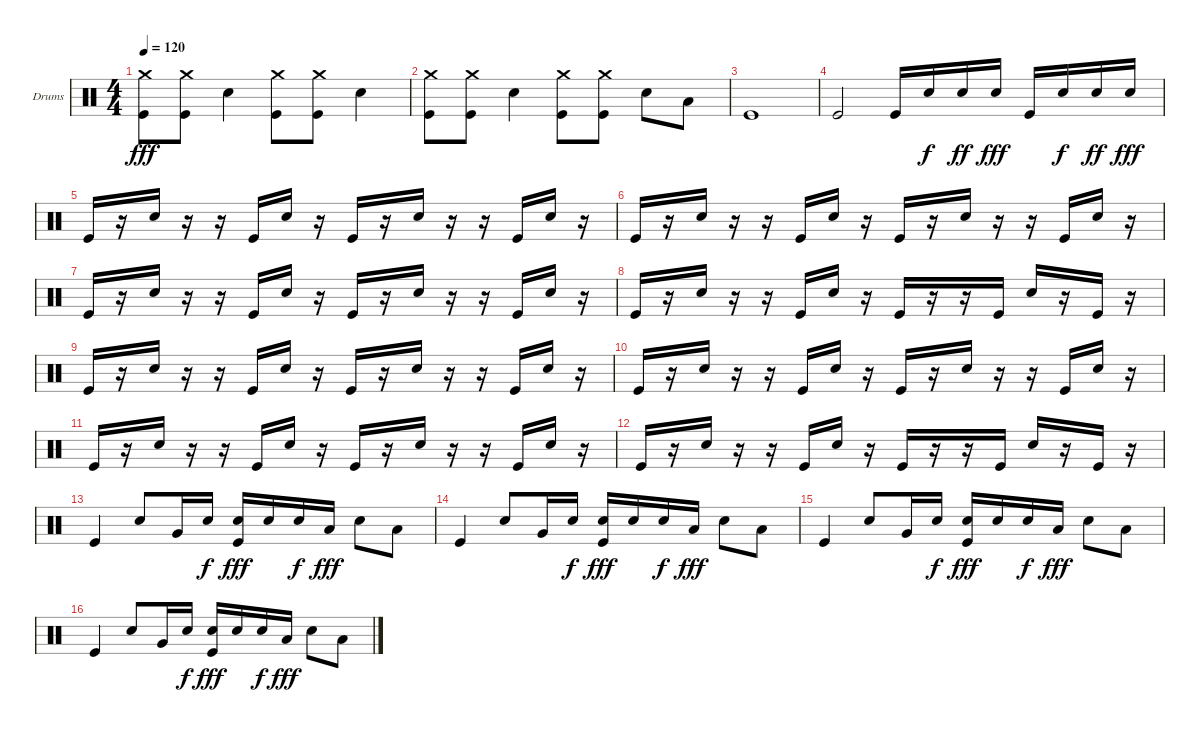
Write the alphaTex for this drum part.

\defaultSystemsLayout 4
\bracketExtendMode groupsimilarinstruments
\firstSystemTrackNameOrientation horizontal
\otherSystemsTrackNameOrientation horizontal
\track ("Пашок" "Drums") {instrument percussion}
\staff {score}
\articulation defaults
\ts (4 4)
\tempo 120
\clef neutral
\ks c
("Kick (hit)" "Crash medium (hit)").8{dy fff} ("Kick (hit)" "Crash medium (hit)").8 "Snare (hit) 2".4 ("Kick (hit)" "Crash medium (hit)").8 ("Kick (hit)" "Crash medium (hit)").8 "Snare (hit) 2".4 |
("Kick (hit)" "Crash medium (hit)").8 ("Kick (hit)" "Crash medium (hit)").8 "Snare (hit) 2".4 ("Kick (hit)" "Crash medium (hit)").8 ("Kick (hit)" "Crash medium (hit)").8 "Snare (hit) 2".8 "Low Tom (hit)".8 |
"Kick (hit)".1 |
"Kick (hit)".2 "Kick (hit)".16 "Snare (hit) 2".16{dy f} "Snare (hit) 2".16{dy ff} "Snare (hit) 2".16{dy fff} "Kick (hit)".16 "Snare (hit) 2".16{dy f} "Snare (hit) 2".16{dy ff} "Snare (hit) 2".16{dy fff} |
"Kick (hit)".16 r.16 "Snare (hit) 2".16 r.16 r.16 "Kick (hit)".16 "Snare (hit) 2".16 r.16 "Kick (hit)".16 r.16 "Snare (hit) 2".16 r.16 r.16 "Kick (hit)".16 "Snare (hit) 2".16 r.16 |
"Kick (hit)".16 r.16 "Snare (hit) 2".16 r.16 r.16 "Kick (hit)".16 "Snare (hit) 2".16 r.16 "Kick (hit)".16 r.16 "Snare (hit) 2".16 r.16 r.16 "Kick (hit)".16 "Snare (hit) 2".16 r.16 |
"Kick (hit)".16 r.16 "Snare (hit) 2".16 r.16 r.16 "Kick (hit)".16 "Snare (hit) 2".16 r.16 "Kick (hit)".16 r.16 "Snare (hit) 2".16 r.16 r.16 "Kick (hit)".16 "Snare (hit) 2".16 r.16 |
"Kick (hit)".16 r.16 "Snare (hit) 2".16 r.16 r.16 "Kick (hit)".16 "Snare (hit) 2".16 r.16 "Kick (hit)".16 r.16 r.16 "Kick (hit)".16 "Snare (hit) 2".16 r.16 "Kick (hit)".16 r.16 |
"Kick (hit)".16 r.16 "Snare (hit) 2".16 r.16 r.16 "Kick (hit)".16 "Snare (hit) 2".16 r.16 "Kick (hit)".16 r.16 "Snare (hit) 2".16 r.16 r.16 "Kick (hit)".16 "Snare (hit) 2".16 r.16 |
"Kick (hit)".16 r.16 "Snare (hit) 2".16 r.16 r.16 "Kick (hit)".16 "Snare (hit) 2".16 r.16 "Kick (hit)".16 r.16 "Snare (hit) 2".16 r.16 r.16 "Kick (hit)".16 "Snare (hit) 2".16 r.16 |
"Kick (hit)".16 r.16 "Snare (hit) 2".16 r.16 r.16 "Kick (hit)".16 "Snare (hit) 2".16 r.16 "Kick (hit)".16 r.16 "Snare (hit) 2".16 r.16 r.16 "Kick (hit)".16 "Snare (hit) 2".16 r.16 |
"Kick (hit)".16 r.16 "Snare (hit) 2".16 r.16 r.16 "Kick (hit)".16 "Snare (hit) 2".16 r.16 "Kick (hit)".16 r.16 r.16 "Kick (hit)".16 "Snare (hit) 2".16 r.16 "Kick (hit)".16 r.16 |
"Kick (hit)".4 "Snare (hit) 2".8 "Very Low Tom (hit)".16 "Snare (hit) 2".16{dy f} ("Kick (hit)" "Snare (hit) 2").16{dy fff} "Snare (hit) 2".16 "Snare (hit) 2".16{dy f} "Low Tom (hit)".16{dy fff} "Snare (hit) 2".8 "Low Tom (hit)".8 |
"Kick (hit)".4 "Snare (hit) 2".8 "Very Low Tom (hit)".16 "Snare (hit) 2".16{dy f} ("Kick (hit)" "Snare (hit) 2").16{dy fff} "Snare (hit) 2".16 "Snare (hit) 2".16{dy f} "Low Tom (hit)".16{dy fff} "Snare (hit) 2".8 "Low Tom (hit)".8 |
"Kick (hit)".4 "Snare (hit) 2".8 "Very Low Tom (hit)".16 "Snare (hit) 2".16{dy f} ("Kick (hit)" "Snare (hit) 2").16{dy fff} "Snare (hit) 2".16 "Snare (hit) 2".16{dy f} "Low Tom (hit)".16{dy fff} "Snare (hit) 2".8 "Low Tom (hit)".8 |
"Kick (hit)".4 "Snare (hit) 2".8 "Very Low Tom (hit)".16 "Snare (hit) 2".16{dy f} ("Kick (hit)" "Snare (hit) 2").16{dy fff} "Snare (hit) 2".16 "Snare (hit) 2".16{dy f} "Low Tom (hit)".16{dy fff} "Snare (hit) 2".8 "Low Tom (hit)".8
